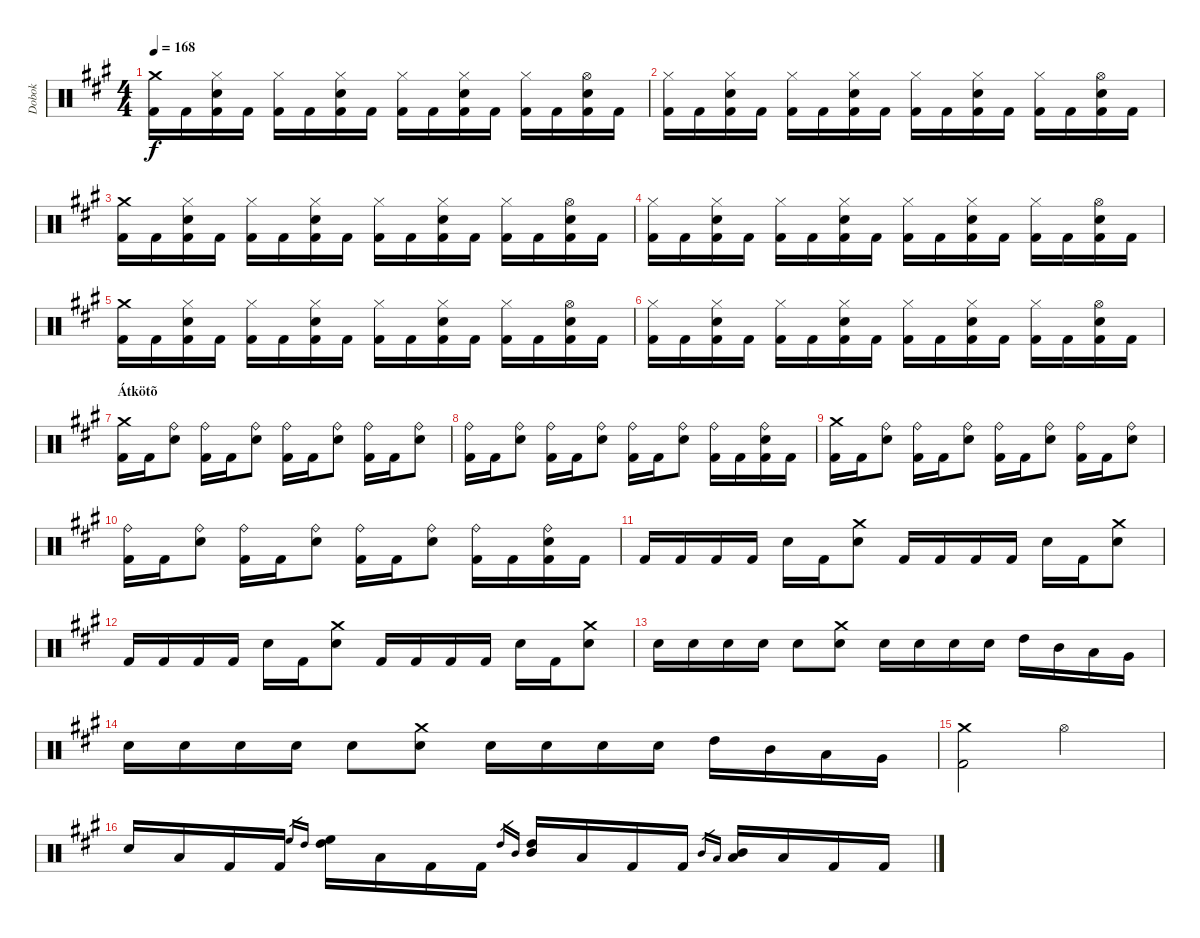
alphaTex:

\track ("Dobok" "Dobok") {instrument percussion}
\staff {score}
\articulation defaults
\ts (4 4)
\tempo 168
\clef neutral
\ks f#minor
("Crash medium (hit)" "Kick (hit) 2").16{dy f} "Kick (hit) 2".16 ("Hi-Hat (closed)" "Snare (hit) 2" "Kick (hit) 2").16 "Kick (hit) 2".16 ("Hi-Hat (closed)" "Kick (hit) 2").16 "Kick (hit) 2".16 ("Hi-Hat (closed)" "Snare (hit) 2" "Kick (hit) 2").16 "Kick (hit) 2".16 ("Hi-Hat (closed)" "Kick (hit) 2").16 "Kick (hit) 2".16 ("Hi-Hat (closed)" "Snare (hit) 2" "Kick (hit) 2").16 "Kick (hit) 2".16 ("Hi-Hat (closed)" "Kick (hit) 2").16 "Kick (hit) 2".16 ("Hi-Hat (open)" "Snare (hit) 2" "Kick (hit) 2").16 "Kick (hit) 2".16 |
("Hi-Hat (closed)" "Kick (hit) 2").16 "Kick (hit) 2".16 ("Hi-Hat (closed)" "Snare (hit) 2" "Kick (hit) 2").16 "Kick (hit) 2".16 ("Hi-Hat (closed)" "Kick (hit) 2").16 "Kick (hit) 2".16 ("Hi-Hat (closed)" "Snare (hit) 2" "Kick (hit) 2").16 "Kick (hit) 2".16 ("Hi-Hat (closed)" "Kick (hit) 2").16 "Kick (hit) 2".16 ("Hi-Hat (closed)" "Snare (hit) 2" "Kick (hit) 2").16 "Kick (hit) 2".16 ("Hi-Hat (closed)" "Kick (hit) 2").16 "Kick (hit) 2".16 ("Hi-Hat (open)" "Snare (hit) 2" "Kick (hit) 2").16 "Kick (hit) 2".16 |
("Crash medium (hit)" "Kick (hit) 2").16 "Kick (hit) 2".16 ("Hi-Hat (closed)" "Snare (hit) 2" "Kick (hit) 2").16 "Kick (hit) 2".16 ("Hi-Hat (closed)" "Kick (hit) 2").16 "Kick (hit) 2".16 ("Hi-Hat (closed)" "Snare (hit) 2" "Kick (hit) 2").16 "Kick (hit) 2".16 ("Hi-Hat (closed)" "Kick (hit) 2").16 "Kick (hit) 2".16 ("Hi-Hat (closed)" "Snare (hit) 2" "Kick (hit) 2").16 "Kick (hit) 2".16 ("Hi-Hat (closed)" "Kick (hit) 2").16 "Kick (hit) 2".16 ("Hi-Hat (open)" "Snare (hit) 2" "Kick (hit) 2").16 "Kick (hit) 2".16 |
("Hi-Hat (closed)" "Kick (hit) 2").16 "Kick (hit) 2".16 ("Hi-Hat (closed)" "Snare (hit) 2" "Kick (hit) 2").16 "Kick (hit) 2".16 ("Hi-Hat (closed)" "Kick (hit) 2").16 "Kick (hit) 2".16 ("Hi-Hat (closed)" "Snare (hit) 2" "Kick (hit) 2").16 "Kick (hit) 2".16 ("Hi-Hat (closed)" "Kick (hit) 2").16 "Kick (hit) 2".16 ("Hi-Hat (closed)" "Snare (hit) 2" "Kick (hit) 2").16 "Kick (hit) 2".16 ("Hi-Hat (closed)" "Kick (hit) 2").16 "Kick (hit) 2".16 ("Hi-Hat (open)" "Snare (hit) 2" "Kick (hit) 2").16 "Kick (hit) 2".16 |
("Crash medium (hit)" "Kick (hit) 2").16 "Kick (hit) 2".16 ("Hi-Hat (closed)" "Snare (hit) 2" "Kick (hit) 2").16 "Kick (hit) 2".16 ("Hi-Hat (closed)" "Kick (hit) 2").16 "Kick (hit) 2".16 ("Hi-Hat (closed)" "Snare (hit) 2" "Kick (hit) 2").16 "Kick (hit) 2".16 ("Hi-Hat (closed)" "Kick (hit) 2").16 "Kick (hit) 2".16 ("Hi-Hat (closed)" "Snare (hit) 2" "Kick (hit) 2").16 "Kick (hit) 2".16 ("Hi-Hat (closed)" "Kick (hit) 2").16 "Kick (hit) 2".16 ("Hi-Hat (open)" "Snare (hit) 2" "Kick (hit) 2").16 "Kick (hit) 2".16 |
("Hi-Hat (closed)" "Kick (hit) 2").16 "Kick (hit) 2".16 ("Hi-Hat (closed)" "Snare (hit) 2" "Kick (hit) 2").16 "Kick (hit) 2".16 ("Hi-Hat (closed)" "Kick (hit) 2").16 "Kick (hit) 2".16 ("Hi-Hat (closed)" "Snare (hit) 2" "Kick (hit) 2").16 "Kick (hit) 2".16 ("Hi-Hat (closed)" "Kick (hit) 2").16 "Kick (hit) 2".16 ("Hi-Hat (closed)" "Snare (hit) 2" "Kick (hit) 2").16 "Kick (hit) 2".16 ("Hi-Hat (closed)" "Kick (hit) 2").16 "Kick (hit) 2".16 ("Hi-Hat (open)" "Snare (hit) 2" "Kick (hit) 2").16 "Kick (hit) 2".16 |
\section ("" "Átkötõ")
("Crash medium (hit)" "Kick (hit) 2").16 "Kick (hit) 2".16 ("Ride (bell)" "Snare (hit) 2").8 ("Ride (bell)" "Kick (hit) 2").16 "Kick (hit) 2".16 ("Ride (bell)" "Snare (hit) 2").8 ("Ride (bell)" "Kick (hit) 2").16 "Kick (hit) 2".16 ("Ride (bell)" "Snare (hit) 2").8 ("Ride (bell)" "Kick (hit) 2").16 "Kick (hit) 2".16 ("Ride (bell)" "Snare (hit) 2").8 |
("Ride (bell)" "Kick (hit) 2").16 "Kick (hit) 2".16 ("Ride (bell)" "Snare (hit) 2").8 ("Ride (bell)" "Kick (hit) 2").16 "Kick (hit) 2".16 ("Ride (bell)" "Snare (hit) 2").8 ("Ride (bell)" "Kick (hit) 2").16 "Kick (hit) 2".16 ("Ride (bell)" "Snare (hit) 2").8 ("Ride (bell)" "Kick (hit) 2").16 "Kick (hit) 2".16 ("Ride (bell)" "Snare (hit) 2" "Kick (hit) 2").16 "Kick (hit) 2".16 |
("Crash medium (hit)" "Kick (hit) 2").16 "Kick (hit) 2".16 ("Ride (bell)" "Snare (hit) 2").8 ("Ride (bell)" "Kick (hit) 2").16 "Kick (hit) 2".16 ("Ride (bell)" "Snare (hit) 2").8 ("Ride (bell)" "Kick (hit) 2").16 "Kick (hit) 2".16 ("Ride (bell)" "Snare (hit) 2").8 ("Ride (bell)" "Kick (hit) 2").16 "Kick (hit) 2".16 ("Ride (bell)" "Snare (hit) 2").8 |
("Ride (bell)" "Kick (hit) 2").16 "Kick (hit) 2".16 ("Ride (bell)" "Snare (hit) 2").8 ("Ride (bell)" "Kick (hit) 2").16 "Kick (hit) 2".16 ("Ride (bell)" "Snare (hit) 2").8 ("Ride (bell)" "Kick (hit) 2").16 "Kick (hit) 2".16 ("Ride (bell)" "Snare (hit) 2").8 ("Ride (bell)" "Kick (hit) 2").16 "Kick (hit) 2".16 ("Ride (bell)" "Snare (hit) 2" "Kick (hit) 2").16 "Kick (hit) 2".16 |
"Kick (hit) 2".16 "Kick (hit) 2".16 "Kick (hit) 2".16 "Kick (hit) 2".16 "Snare (hit) 2".16 "Kick (hit) 2".16 ("Crash medium (hit)" "Snare (hit) 2").8 "Kick (hit) 2".16 "Kick (hit) 2".16 "Kick (hit) 2".16 "Kick (hit) 2".16 "Snare (hit) 2".16 "Kick (hit) 2".16 ("Crash medium (hit)" "Snare (hit) 2").8 |
"Kick (hit) 2".16 "Kick (hit) 2".16 "Kick (hit) 2".16 "Kick (hit) 2".16 "Snare (hit) 2".16 "Kick (hit) 2".16 ("Crash medium (hit)" "Snare (hit) 2").8 "Kick (hit) 2".16 "Kick (hit) 2".16 "Kick (hit) 2".16 "Kick (hit) 2".16 "Snare (hit) 2".16 "Kick (hit) 2".16 ("Crash medium (hit)" "Snare (hit) 2").8 |
"Snare (hit) 2".16 "Snare (hit) 2".16 "Snare (hit) 2".16 "Snare (hit) 2".16 "Snare (hit) 2".8 ("Crash medium (hit)" "Snare (hit) 2").8 "Snare (hit) 2".16 "Snare (hit) 2".16 "Snare (hit) 2".16 "Snare (hit) 2".16 "High Tom (hit)".16 "Mid Tom (hit)".16 "Low Tom (hit)".16 "Very Low Tom (hit)".16 |
"Snare (hit) 2".16 "Snare (hit) 2".16 "Snare (hit) 2".16 "Snare (hit) 2".16 "Snare (hit) 2".8 ("Crash medium (hit)" "Snare (hit) 2").8 "Snare (hit) 2".16 "Snare (hit) 2".16 "Snare (hit) 2".16 "Snare (hit) 2".16 "High Tom (hit)".16 "Mid Tom (hit)".16 "Low Tom (hit)".16 "Very Low Tom (hit)".16 |
("Crash medium (hit)" "Kick (hit) 2").2 "Hi-Hat (open)".2 |
"Snare (hit) 2".16 "Low Tom (hit)".16 "Kick (hit) 2".16 "Kick (hit) 2".16 "High Floor Tom (hit)".16{gr} "High Tom (hit)".16{gr} ("High Floor Tom (hit)" "High Tom (hit)").16 "Low Tom (hit)".16 "Kick (hit) 2".16 "Kick (hit) 2".16 "High Tom (hit)".16{gr} "Mid Tom (hit)".16{gr} ("High Tom (hit)" "Mid Tom (hit)").16 "Low Tom (hit)".16 "Kick (hit) 2".16 "Kick (hit) 2".16 "Mid Tom (hit)".16{gr} "Low Tom (hit)".16{gr} ("Mid Tom (hit)" "Low Tom (hit)").16 "Low Tom (hit)".16 "Kick (hit) 2".16 "Kick (hit) 2".16
